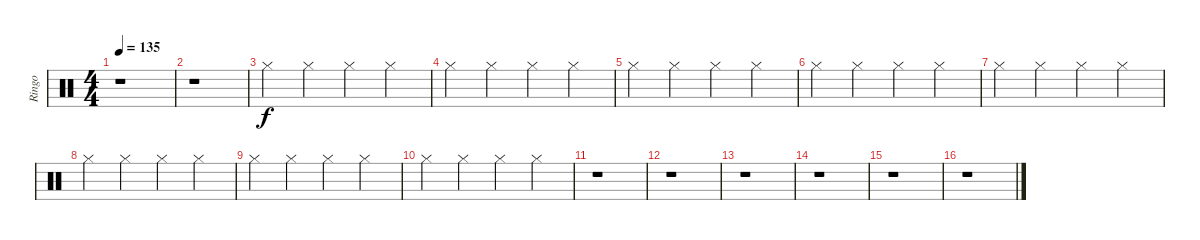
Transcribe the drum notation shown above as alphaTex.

\track ("Ringo" "Ringo") {instrument percussion}
\staff {score}
\articulation defaults
\ts (4 4)
\tempo 135
\clef neutral
\ks c
r.1{dy f} |
r.1 |
"Hi-Hat (closed)".4 "Hi-Hat (closed)".4 "Hi-Hat (closed)".4 "Hi-Hat (closed)".4 |
"Hi-Hat (closed)".4 "Hi-Hat (closed)".4 "Hi-Hat (closed)".4 "Hi-Hat (closed)".4 |
"Hi-Hat (closed)".4 "Hi-Hat (closed)".4 "Hi-Hat (closed)".4 "Hi-Hat (closed)".4 |
"Hi-Hat (closed)".4 "Hi-Hat (closed)".4 "Hi-Hat (closed)".4 "Hi-Hat (closed)".4 |
"Hi-Hat (closed)".4 "Hi-Hat (closed)".4 "Hi-Hat (closed)".4 "Hi-Hat (closed)".4 |
"Hi-Hat (closed)".4 "Hi-Hat (closed)".4 "Hi-Hat (closed)".4 "Hi-Hat (closed)".4 |
"Hi-Hat (closed)".4 "Hi-Hat (closed)".4 "Hi-Hat (closed)".4 "Hi-Hat (closed)".4 |
"Hi-Hat (closed)".4 "Hi-Hat (closed)".4 "Hi-Hat (closed)".4 "Hi-Hat (closed)".4 |
r.1 |
r.1 |
r.1 |
r.1 |
r.1 |
r.1
